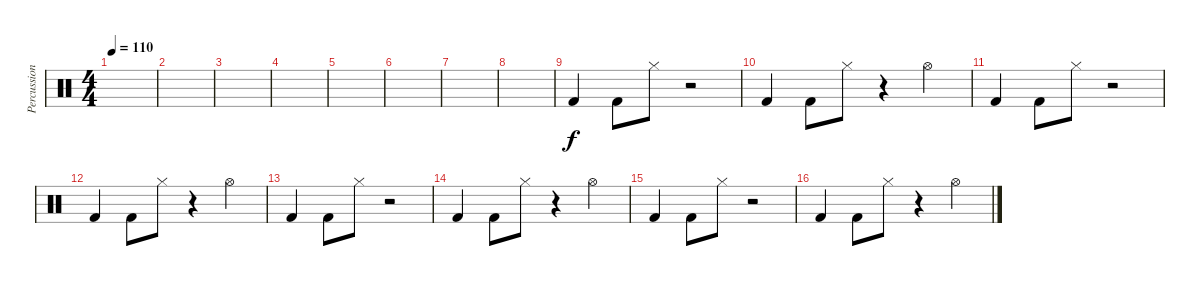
\track ("Percussion" "Percussion") {instrument percussion}
\staff {score}
\articulation defaults
\ts (4 4)
\tempo 110
\tempo 85
\tempo 110
\clef neutral
\ks c
|
|
|
|
|
|
|
|
"Kick (hit) 2".4 "Kick (hit) 2".8 "Hi-Hat (closed)".8 r.2 |
"Kick (hit) 2".4 "Kick (hit) 2".8 "Hi-Hat (closed)".8 r.4 "Hi-Hat (open)".4 |
"Kick (hit) 2".4 "Kick (hit) 2".8 "Hi-Hat (closed)".8 r.2 |
"Kick (hit) 2".4 "Kick (hit) 2".8 "Hi-Hat (closed)".8 r.4 "Hi-Hat (open)".4 |
"Kick (hit) 2".4 "Kick (hit) 2".8 "Hi-Hat (closed)".8 r.2 |
"Kick (hit) 2".4 "Kick (hit) 2".8 "Hi-Hat (closed)".8 r.4 "Hi-Hat (open)".4 |
"Kick (hit) 2".4 "Kick (hit) 2".8 "Hi-Hat (closed)".8 r.2 |
"Kick (hit) 2".4 "Kick (hit) 2".8 "Hi-Hat (closed)".8 r.4 "Hi-Hat (open)".4
